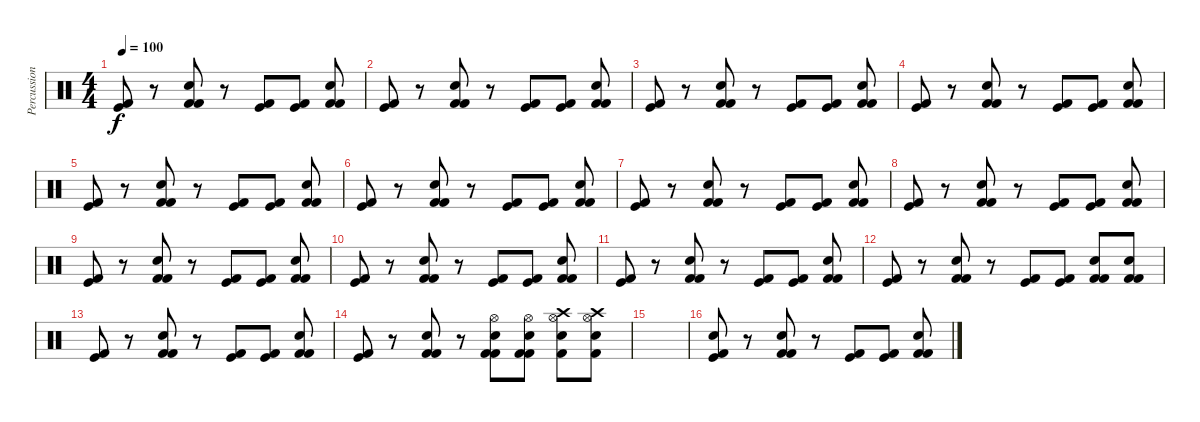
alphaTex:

\track ("Percussions" "Percussion") {instrument percussion}
\staff {score}
\articulation defaults
\ts (4 4)
\tempo 100
\clef neutral
\ks c
("Kick (hit)" "Kick (hit) 2").8{dy f} r.8 ("Kick (hit) 2" "Electric Snare (hit)" "Kick (hit) 2").8 r.8 ("Kick (hit)" "Kick (hit) 2").8 ("Kick (hit)" "Kick (hit) 2").8 ("Kick (hit) 2" "Electric Snare (hit)" "Kick (hit) 2").8 |
("Kick (hit)" "Kick (hit) 2").8 r.8 ("Kick (hit) 2" "Electric Snare (hit)" "Kick (hit) 2").8 r.8 ("Kick (hit)" "Kick (hit) 2").8 ("Kick (hit)" "Kick (hit) 2").8 ("Kick (hit) 2" "Electric Snare (hit)" "Kick (hit) 2").8 |
("Kick (hit)" "Kick (hit) 2").8 r.8 ("Kick (hit) 2" "Electric Snare (hit)" "Kick (hit) 2").8 r.8 ("Kick (hit)" "Kick (hit) 2").8 ("Kick (hit)" "Kick (hit) 2").8 ("Kick (hit) 2" "Electric Snare (hit)" "Kick (hit) 2").8 |
("Kick (hit)" "Kick (hit) 2").8 r.8 ("Kick (hit) 2" "Electric Snare (hit)" "Kick (hit) 2").8 r.8 ("Kick (hit)" "Kick (hit) 2").8 ("Kick (hit)" "Kick (hit) 2").8 ("Kick (hit) 2" "Electric Snare (hit)" "Kick (hit) 2").8 |
("Kick (hit)" "Kick (hit) 2").8 r.8 ("Kick (hit) 2" "Electric Snare (hit)" "Kick (hit) 2").8 r.8 ("Kick (hit)" "Kick (hit) 2").8 ("Kick (hit)" "Kick (hit) 2").8 ("Kick (hit) 2" "Electric Snare (hit)" "Kick (hit) 2").8 |
("Kick (hit)" "Kick (hit) 2").8 r.8 ("Kick (hit) 2" "Electric Snare (hit)" "Kick (hit) 2").8 r.8 ("Kick (hit)" "Kick (hit) 2").8 ("Kick (hit)" "Kick (hit) 2").8 ("Kick (hit) 2" "Electric Snare (hit)" "Kick (hit) 2").8 |
("Kick (hit)" "Kick (hit) 2").8 r.8 ("Kick (hit) 2" "Electric Snare (hit)" "Kick (hit) 2").8 r.8 ("Kick (hit)" "Kick (hit) 2").8 ("Kick (hit)" "Kick (hit) 2").8 ("Kick (hit) 2" "Electric Snare (hit)" "Kick (hit) 2").8 |
("Kick (hit)" "Kick (hit) 2").8 r.8 ("Kick (hit) 2" "Electric Snare (hit)" "Kick (hit) 2").8 r.8 ("Kick (hit)" "Kick (hit) 2").8 ("Kick (hit)" "Kick (hit) 2").8 ("Kick (hit) 2" "Electric Snare (hit)" "Kick (hit) 2").8 |
("Kick (hit)" "Kick (hit) 2").8 r.8 ("Kick (hit) 2" "Electric Snare (hit)" "Kick (hit) 2").8 r.8 ("Kick (hit)" "Kick (hit) 2").8 ("Kick (hit)" "Kick (hit) 2").8 ("Kick (hit) 2" "Electric Snare (hit)" "Kick (hit) 2").8 |
("Kick (hit)" "Kick (hit) 2").8 r.8 ("Kick (hit) 2" "Electric Snare (hit)" "Kick (hit) 2").8 r.8 ("Kick (hit)" "Kick (hit) 2").8 ("Kick (hit)" "Kick (hit) 2").8 ("Kick (hit) 2" "Electric Snare (hit)" "Kick (hit) 2").8 |
("Kick (hit)" "Kick (hit) 2").8 r.8 ("Kick (hit) 2" "Electric Snare (hit)" "Kick (hit) 2").8 r.8 ("Kick (hit)" "Kick (hit) 2").8 ("Kick (hit)" "Kick (hit) 2").8 ("Kick (hit) 2" "Electric Snare (hit)" "Kick (hit) 2").8 |
("Kick (hit)" "Kick (hit) 2").8 r.8 ("Kick (hit) 2" "Electric Snare (hit)" "Kick (hit) 2").8 r.8 ("Kick (hit)" "Kick (hit) 2").8 ("Kick (hit)" "Kick (hit) 2").8 ("Kick (hit) 2" "Electric Snare (hit)" "Kick (hit) 2").8 ("Kick (hit) 2" "Electric Snare (hit)" "Kick (hit) 2").8 |
("Kick (hit)" "Kick (hit) 2").8 r.8 ("Kick (hit) 2" "Electric Snare (hit)" "Kick (hit) 2").8 r.8 ("Kick (hit)" "Kick (hit) 2").8 ("Kick (hit)" "Kick (hit) 2").8 ("Kick (hit) 2" "Electric Snare (hit)" "Kick (hit) 2").8 |
("Kick (hit)" "Kick (hit) 2").8 r.8 ("Kick (hit) 2" "Electric Snare (hit)" "Kick (hit) 2").8 r.8 ("Kick (hit) 2" "Hi-Hat (open)" "Electric Snare (hit)" "Kick (hit) 2").8 ("Kick (hit) 2" "Hi-Hat (open)" "Electric Snare (hit)" "Kick (hit) 2").8 ("Crash high (hit)" "Hi-Hat (open)" "Electric Snare (hit)" "Kick (hit) 2").8 ("Crash high (hit)" "Hi-Hat (open)" "Electric Snare (hit)" "Kick (hit) 2").8 |
|
("Snare (hit) 2" "Kick (hit)" "Kick (hit) 2").8 r.8 ("Kick (hit) 2" "Electric Snare (hit)" "Kick (hit) 2").8 r.8 ("Kick (hit)" "Kick (hit) 2").8 ("Kick (hit)" "Kick (hit) 2").8 ("Kick (hit) 2" "Electric Snare (hit)" "Kick (hit) 2").8
